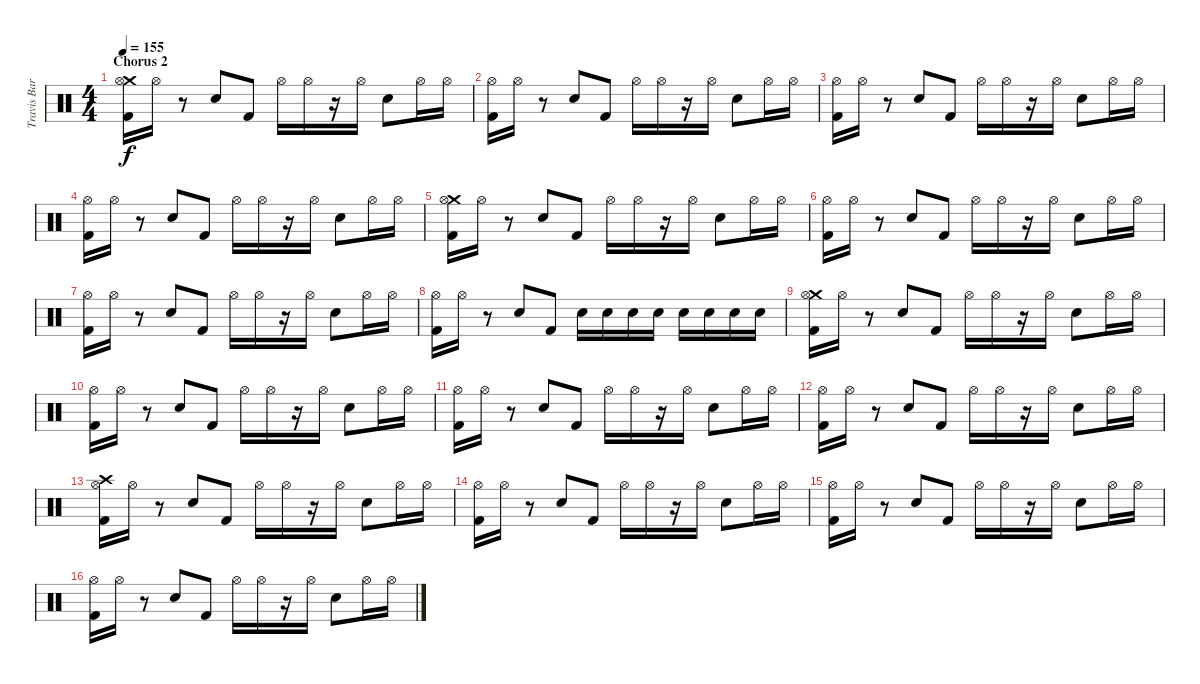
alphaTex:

\track ("Travis Barker Drums" "Travis Bar") {mute instrument percussion}
\staff {score}
\articulation defaults
\ts (4 4)
\section ("" "Chorus 2")
\tempo 155
\clef neutral
\ks c
("Crash medium (hit)" "Hi-Hat (open)" "Kick (hit) 2").16{dy f} "Hi-Hat (open)".16 r.8 "Electric Snare (hit)".8 "Kick (hit) 2".8 "Hi-Hat (open)".16 "Hi-Hat (open)".16 r.16 "Hi-Hat (open)".16 "Electric Snare (hit)".8 "Hi-Hat (open)".16 "Hi-Hat (open)".16 |
("Hi-Hat (open)" "Kick (hit) 2").16 "Hi-Hat (open)".16 r.8 "Electric Snare (hit)".8 "Kick (hit) 2".8 "Hi-Hat (open)".16 "Hi-Hat (open)".16 r.16 "Hi-Hat (open)".16 "Electric Snare (hit)".8 "Hi-Hat (open)".16 "Hi-Hat (open)".16 |
("Hi-Hat (open)" "Kick (hit) 2").16 "Hi-Hat (open)".16 r.8 "Electric Snare (hit)".8 "Kick (hit) 2".8 "Hi-Hat (open)".16 "Hi-Hat (open)".16 r.16 "Hi-Hat (open)".16 "Electric Snare (hit)".8 "Hi-Hat (open)".16 "Hi-Hat (open)".16 |
("Hi-Hat (open)" "Kick (hit) 2").16 "Hi-Hat (open)".16 r.8 "Electric Snare (hit)".8 "Kick (hit) 2".8 "Hi-Hat (open)".16 "Hi-Hat (open)".16 r.16 "Hi-Hat (open)".16 "Electric Snare (hit)".8 "Hi-Hat (open)".16 "Hi-Hat (open)".16 |
("Crash medium (hit)" "Hi-Hat (open)" "Kick (hit) 2").16 "Hi-Hat (open)".16 r.8 "Electric Snare (hit)".8 "Kick (hit) 2".8 "Hi-Hat (open)".16 "Hi-Hat (open)".16 r.16 "Hi-Hat (open)".16 "Electric Snare (hit)".8 "Hi-Hat (open)".16 "Hi-Hat (open)".16 |
("Hi-Hat (open)" "Kick (hit) 2").16 "Hi-Hat (open)".16 r.8 "Electric Snare (hit)".8 "Kick (hit) 2".8 "Hi-Hat (open)".16 "Hi-Hat (open)".16 r.16 "Hi-Hat (open)".16 "Electric Snare (hit)".8 "Hi-Hat (open)".16 "Hi-Hat (open)".16 |
("Hi-Hat (open)" "Kick (hit) 2").16 "Hi-Hat (open)".16 r.8 "Electric Snare (hit)".8 "Kick (hit) 2".8 "Hi-Hat (open)".16 "Hi-Hat (open)".16 r.16 "Hi-Hat (open)".16 "Electric Snare (hit)".8 "Hi-Hat (open)".16 "Hi-Hat (open)".16 |
("Hi-Hat (open)" "Kick (hit) 2").16 "Hi-Hat (open)".16 r.8 "Electric Snare (hit)".8 "Kick (hit) 2".8 "Electric Snare (hit)".16 "Electric Snare (hit)".16 "Electric Snare (hit)".16 "Electric Snare (hit)".16 "Electric Snare (hit)".16 "Electric Snare (hit)".16 "Electric Snare (hit)".16 "Electric Snare (hit)".16 |
("Crash medium (hit)" "Hi-Hat (open)" "Kick (hit) 2").16 "Hi-Hat (open)".16 r.8 "Electric Snare (hit)".8 "Kick (hit) 2".8 "Hi-Hat (open)".16 "Hi-Hat (open)".16 r.16 "Hi-Hat (open)".16 "Electric Snare (hit)".8 "Hi-Hat (open)".16 "Hi-Hat (open)".16 |
("Hi-Hat (open)" "Kick (hit) 2").16 "Hi-Hat (open)".16 r.8 "Electric Snare (hit)".8 "Kick (hit) 2".8 "Hi-Hat (open)".16 "Hi-Hat (open)".16 r.16 "Hi-Hat (open)".16 "Electric Snare (hit)".8 "Hi-Hat (open)".16 "Hi-Hat (open)".16 |
("Hi-Hat (open)" "Kick (hit) 2").16 "Hi-Hat (open)".16 r.8 "Electric Snare (hit)".8 "Kick (hit) 2".8 "Hi-Hat (open)".16 "Hi-Hat (open)".16 r.16 "Hi-Hat (open)".16 "Electric Snare (hit)".8 "Hi-Hat (open)".16 "Hi-Hat (open)".16 |
("Hi-Hat (open)" "Kick (hit) 2").16 "Hi-Hat (open)".16 r.8 "Electric Snare (hit)".8 "Kick (hit) 2".8 "Hi-Hat (open)".16 "Hi-Hat (open)".16 r.16 "Hi-Hat (open)".16 "Electric Snare (hit)".8 "Hi-Hat (open)".16 "Hi-Hat (open)".16 |
("Crash high (hit)" "Hi-Hat (open)" "Kick (hit) 2").16 "Hi-Hat (open)".16 r.8 "Electric Snare (hit)".8 "Kick (hit) 2".8 "Hi-Hat (open)".16 "Hi-Hat (open)".16 r.16 "Hi-Hat (open)".16 "Electric Snare (hit)".8 "Hi-Hat (open)".16 "Hi-Hat (open)".16 |
("Hi-Hat (open)" "Kick (hit) 2").16 "Hi-Hat (open)".16 r.8 "Electric Snare (hit)".8 "Kick (hit) 2".8 "Hi-Hat (open)".16 "Hi-Hat (open)".16 r.16 "Hi-Hat (open)".16 "Electric Snare (hit)".8 "Hi-Hat (open)".16 "Hi-Hat (open)".16 |
("Hi-Hat (open)" "Kick (hit) 2").16 "Hi-Hat (open)".16 r.8 "Electric Snare (hit)".8 "Kick (hit) 2".8 "Hi-Hat (open)".16 "Hi-Hat (open)".16 r.16 "Hi-Hat (open)".16 "Electric Snare (hit)".8 "Hi-Hat (open)".16 "Hi-Hat (open)".16 |
("Hi-Hat (open)" "Kick (hit) 2").16 "Hi-Hat (open)".16 r.8 "Electric Snare (hit)".8 "Kick (hit) 2".8 "Hi-Hat (open)".16 "Hi-Hat (open)".16 r.16 "Hi-Hat (open)".16 "Electric Snare (hit)".8 "Hi-Hat (open)".16 "Hi-Hat (open)".16
